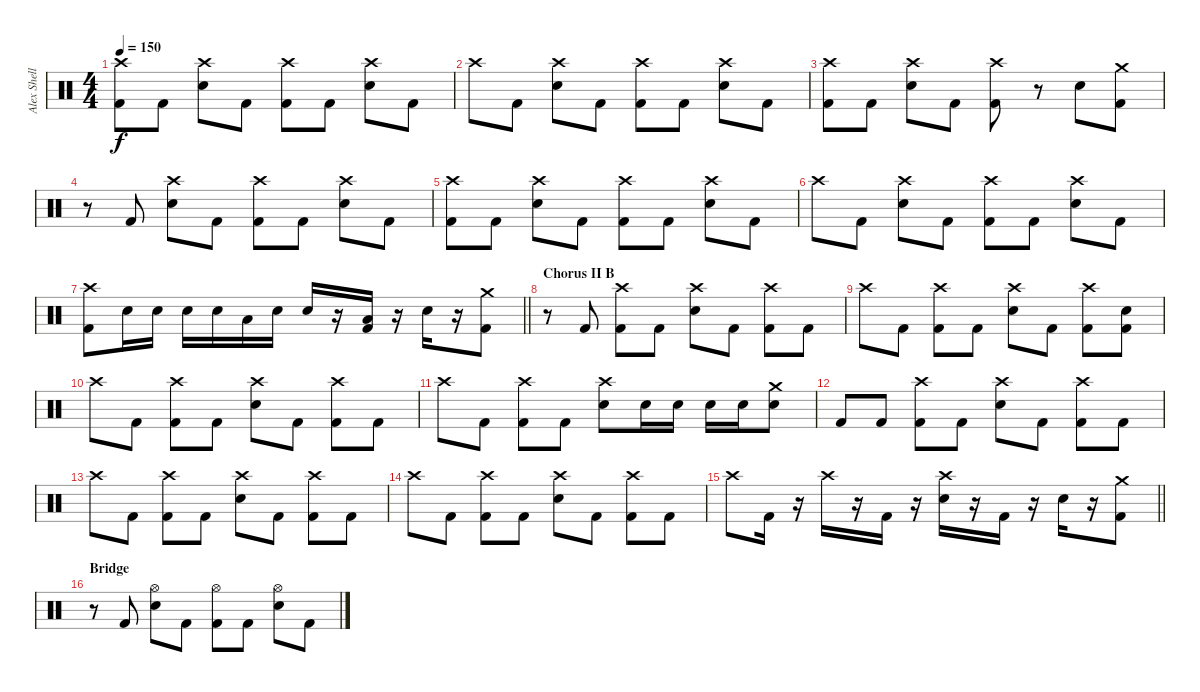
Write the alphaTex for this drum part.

\track ("Alex Shellnutt" "Alex Shell") {instrument percussion}
\staff {score}
\articulation defaults
\ts (4 4)
\tempo 150
\clef neutral
\ks c
("Crash high (hit)" "Kick (hit) 2").8{dy f} "Kick (hit) 2".8 ("Crash high (hit)" "Snare (hit) 2").8 "Kick (hit) 2".8 ("Crash high (hit)" "Kick (hit) 2").8 "Kick (hit) 2".8 ("Crash high (hit)" "Snare (hit) 2").8 "Kick (hit) 2".8 |
"Crash high (hit)".8 "Kick (hit) 2".8 ("Crash high (hit)" "Snare (hit) 2").8 "Kick (hit) 2".8 ("Crash high (hit)" "Kick (hit) 2").8 "Kick (hit) 2".8 ("Crash high (hit)" "Snare (hit) 2").8 "Kick (hit) 2".8 |
("Crash high (hit)" "Kick (hit) 2").8 "Kick (hit) 2".8 ("Crash high (hit)" "Snare (hit) 2").8 "Kick (hit) 2".8 ("Crash high (hit)" "Kick (hit) 2").8 r.8 "Snare (hit) 2".8 ("Crash medium (hit)" "Kick (hit) 2").8 |
r.8 "Kick (hit) 2".8 ("Crash high (hit)" "Snare (hit) 2").8 "Kick (hit) 2".8 ("Crash high (hit)" "Kick (hit) 2").8 "Kick (hit) 2".8 ("Crash high (hit)" "Snare (hit) 2").8 "Kick (hit) 2".8 |
("Crash high (hit)" "Kick (hit) 2").8 "Kick (hit) 2".8 ("Crash high (hit)" "Snare (hit) 2").8 "Kick (hit) 2".8 ("Crash high (hit)" "Kick (hit) 2").8 "Kick (hit) 2".8 ("Crash high (hit)" "Snare (hit) 2").8 "Kick (hit) 2".8 |
"Crash high (hit)".8 "Kick (hit) 2".8 ("Crash high (hit)" "Snare (hit) 2").8 "Kick (hit) 2".8 ("Crash high (hit)" "Kick (hit) 2").8 "Kick (hit) 2".8 ("Crash high (hit)" "Snare (hit) 2").8 "Kick (hit) 2".8 |
\barLineRight lightlight
("Crash high (hit)" "Kick (hit) 2").8 "Snare (hit) 2".16 "Snare (hit) 2".16 "Snare (hit) 2".16 "Snare (hit) 2".16 "Low Floor Tom (hit)".16 "Snare (hit) 2".16 "Snare (hit) 2".16 r.16 ("Low Floor Tom (hit)" "Kick (hit) 2").16 r.16 "Snare (hit) 2".16 r.16 ("Crash medium (hit)" "Kick (hit) 2").8 |
\section ("" "Chorus II B")
r.8 "Kick (hit) 2".8 ("Crash high (hit)" "Kick (hit) 2").8 "Kick (hit) 2".8 ("Crash high (hit)" "Snare (hit) 2").8 "Kick (hit) 2".8 ("Crash high (hit)" "Kick (hit) 2").8 "Kick (hit) 2".8 |
"Crash high (hit)".8 "Kick (hit) 2".8 ("Crash high (hit)" "Kick (hit) 2").8 "Kick (hit) 2".8 ("Crash high (hit)" "Snare (hit) 2").8 "Kick (hit) 2".8 ("Crash high (hit)" "Kick (hit) 2").8 ("Snare (hit) 2" "Kick (hit) 2").8 |
"Crash high (hit)".8 "Kick (hit) 2".8 ("Crash high (hit)" "Kick (hit) 2").8 "Kick (hit) 2".8 ("Crash high (hit)" "Snare (hit) 2").8 "Kick (hit) 2".8 ("Crash high (hit)" "Kick (hit) 2").8 "Kick (hit) 2".8 |
"Crash high (hit)".8 "Kick (hit) 2".8 ("Crash high (hit)" "Kick (hit) 2").8 "Kick (hit) 2".8 ("Crash high (hit)" "Snare (hit) 2").8 "Snare (hit) 2".16 "Snare (hit) 2".16 "Snare (hit) 2".16 "Snare (hit) 2".16 ("Crash medium (hit)" "Snare (hit) 2").8 |
"Kick (hit) 2".8 "Kick (hit) 2".8 ("Crash high (hit)" "Kick (hit) 2").8 "Kick (hit) 2".8 ("Crash high (hit)" "Snare (hit) 2").8 "Kick (hit) 2".8 ("Crash high (hit)" "Kick (hit) 2").8 "Kick (hit) 2".8 |
"Crash high (hit)".8 "Kick (hit) 2".8 ("Crash high (hit)" "Kick (hit) 2").8 "Kick (hit) 2".8 ("Crash high (hit)" "Snare (hit) 2").8 "Kick (hit) 2".8 ("Crash high (hit)" "Kick (hit) 2").8 "Kick (hit) 2".8 |
"Crash high (hit)".8 "Kick (hit) 2".8 ("Crash high (hit)" "Kick (hit) 2").8 "Kick (hit) 2".8 ("Crash high (hit)" "Snare (hit) 2").8 "Kick (hit) 2".8 ("Crash high (hit)" "Kick (hit) 2").8 "Kick (hit) 2".8 |
\barLineRight lightlight "Crash high (hit)".8 "Kick (hit) 2".16
r.16 "Crash high (hit)".16 r.16 "Kick (hit) 2".16 r.16 ("Crash high (hit)" "Snare (hit) 2").16 r.16 "Kick (hit) 2".16 r.16 "Snare (hit) 2".16 r.16 ("Crash medium (hit)" "Kick (hit) 2").8 |
\section ("" "Bridge")
r.8 "Kick (hit) 2".8 ("Hi-Hat (open)" "Snare (hit) 2").8 "Kick (hit) 2".8 ("Hi-Hat (open)" "Kick (hit) 2").8 "Kick (hit) 2".8 ("Hi-Hat (open)" "Snare (hit) 2").8 "Kick (hit) 2".8
